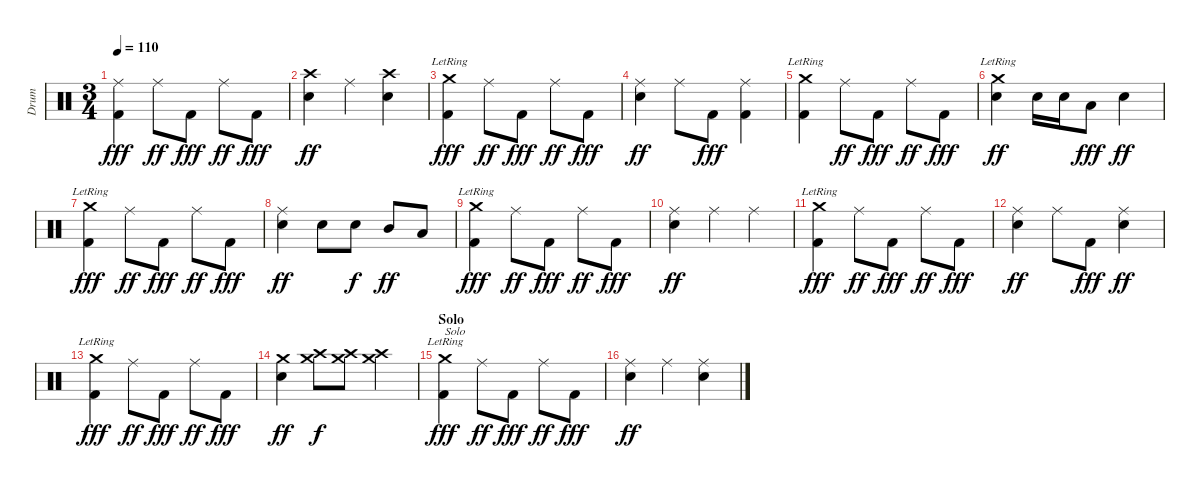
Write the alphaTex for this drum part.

\track ("Drum" "Drum") {instrument percussion}
\staff {score}
\articulation defaults
\ts (3 4)
\tempo 110
\clef neutral
\ks c
("Ride (middle)" "Kick (hit) 2").4{dy fff} "Ride (middle)".8{dy ff} "Kick (hit) 2".8{dy fff} "Ride (middle)".8{dy ff} "Kick (hit) 2".8{dy fff} |
("Crash high (hit)" "Snare (hit) 2").4{dy ff} "Ride (middle)".4 ("Crash high (hit)" "Snare (hit) 2").4 |
("Crash medium (hit)"{lr} "Kick (hit) 2").4{dy fff} "Ride (middle)".8{dy ff} "Kick (hit) 2".8{dy fff} "Ride (middle)".8{dy ff} "Kick (hit) 2".8{dy fff} |
("Ride (middle)" "Snare (hit) 2").4{dy ff} "Ride (middle)".8 "Kick (hit) 2".8{dy fff} ("Ride (middle)" "Kick (hit) 2").4 |
("Crash medium (hit)"{lr} "Kick (hit) 2").4 "Ride (middle)".8{dy ff} "Kick (hit) 2".8{dy fff} "Ride (middle)".8{dy ff} "Kick (hit) 2".8{dy fff} |
("Crash medium (hit)"{lr} "Snare (hit) 2").4{dy ff} "Snare (hit) 2".16 "Snare (hit) 2".16 "Low Tom (hit)".8{dy fff} "Snare (hit) 2".4{dy ff} |
("Crash medium (hit)"{lr} "Kick (hit) 2").4{dy fff} "Ride (middle)".8{dy ff} "Kick (hit) 2".8{dy fff} "Ride (middle)".8{dy ff} "Kick (hit) 2".8{dy fff} |
("Ride (middle)" "Snare (hit) 2").4{dy ff} "Snare (hit) 2".8 "Snare (hit) 2".8{dy f} "Mid Tom (hit)".8{dy ff} "Low Tom (hit)".8 |
("Crash medium (hit)"{lr} "Kick (hit) 2").4{dy fff} "Ride (middle)".8{dy ff} "Kick (hit) 2".8{dy fff} "Ride (middle)".8{dy ff} "Kick (hit) 2".8{dy fff} |
("Ride (middle)" "Snare (hit) 2").4{dy ff} "Ride (middle)".4 "Ride (middle)".4 |
("Crash medium (hit)"{lr} "Kick (hit) 2").4{dy fff} "Ride (middle)".8{dy ff} "Kick (hit) 2".8{dy fff} "Ride (middle)".8{dy ff} "Kick (hit) 2".8{dy fff} |
("Ride (middle)" "Snare (hit) 2").4{dy ff} "Ride (middle)".8 "Kick (hit) 2".8{dy fff} ("Ride (middle)" "Snare (hit) 2").4{dy ff} |
("Crash medium (hit)"{lr} "Kick (hit) 2").4{dy fff} "Ride (middle)".8{dy ff} "Kick (hit) 2".8{dy fff} "Ride (middle)".8{dy ff} "Kick (hit) 2".8{dy fff} |
("Crash medium (hit)" "Snare (hit) 2").4{dy ff} ("Crash medium (hit)" "Crash high (hit)").8{dy f} ("Crash medium (hit)" "Crash high (hit)").8 ("Crash medium (hit)" "Crash high (hit)").4 |
\section ("" "Solo")
("Crash medium (hit)"{lr} "Kick (hit) 2").4{txt "Solo" dy fff} "Ride (middle)".8{dy ff} "Kick (hit) 2".8{dy fff} "Ride (middle)".8{dy ff} "Kick (hit) 2".8{dy fff} |
("Ride (middle)" "Snare (hit) 2").4{dy ff} "Ride (middle)".4 ("Ride (middle)" "Snare (hit) 2").4
